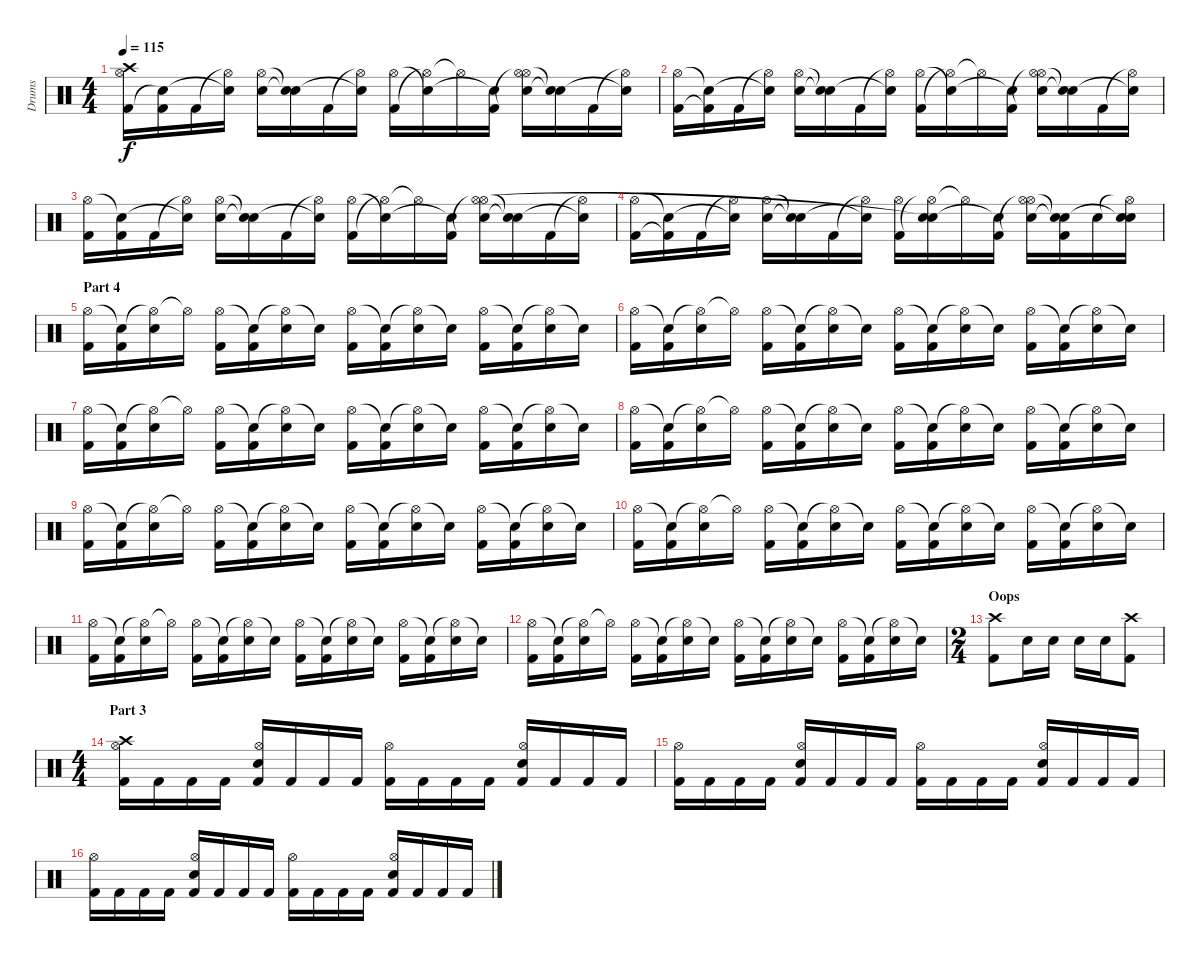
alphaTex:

\track ("Drums" "Drums") {instrument percussion}
\staff {score}
\articulation defaults
\ts (4 4)
\tempo 115
\clef neutral
\ks c
("Crash high (hit)" "Kick (hit) 2" "Hi-Hat (open)").16{dy f} ("Kick (hit) 2" "Snare (hit)"{t}).16 "Kick (hit) 2".16 ("Hi-Hat (open)"{t} "Snare (hit)"{t}).16 ("Electric Snare (hit)" "Hi-Hat (open)").16 ("Snare (hit)"{t} "Snare (hit)"{t}).16 "Kick (hit) 2".16 ("Hi-Hat (open)"{t} "Snare (hit)"{t}).16 ("Kick (hit) 2" "Hi-Hat (open)").16 ("Hi-Hat (open)"{t} "Snare (hit)"{t}).16 "Hi-Hat (open)"{t}.16 ("Kick (hit) 2" "Snare (hit)"{t}).16 ("Hi-Hat (open)"{t} "Electric Snare (hit)" "Hi-Hat (open)").16 ("Electric Snare (hit)"{t} "Snare (hit)"{t}).16 "Kick (hit) 2".16 ("Hi-Hat (open)"{t} "Snare (hit)"{t}).16 |
("Kick (hit) 2" "Hi-Hat (open)").16 ("Kick (hit) 2"{t} "Snare (hit)"{t}).16 "Kick (hit) 2".16 ("Hi-Hat (open)"{t} "Snare (hit)"{t}).16 ("Electric Snare (hit)" "Hi-Hat (open)").16 ("Snare (hit)"{t} "Snare (hit)"{t}).16 "Kick (hit) 2".16 ("Hi-Hat (open)"{t} "Snare (hit)"{t}).16 ("Kick (hit) 2" "Hi-Hat (open)").16 ("Hi-Hat (open)"{t} "Snare (hit)"{t}).16 "Hi-Hat (open)"{t}.16 ("Kick (hit) 2" "Snare (hit)"{t}).16 ("Hi-Hat (open)"{t} "Electric Snare (hit)" "Hi-Hat (open)").16 ("Electric Snare (hit)"{t} "Snare (hit)"{t}).16 "Kick (hit) 2".16 ("Hi-Hat (open)"{t} "Snare (hit)"{t}).16 |
("Kick (hit) 2" "Hi-Hat (open)").16 ("Kick (hit) 2" "Snare (hit)"{t}).16 "Kick (hit) 2".16 ("Hi-Hat (open)"{t} "Snare (hit)"{t}).16 ("Electric Snare (hit)" "Hi-Hat (open)").16 ("Snare (hit)"{t} "Snare (hit)"{t}).16 "Kick (hit) 2".16 ("Hi-Hat (open)"{t} "Snare (hit)"{t}).16 ("Kick (hit) 2" "Hi-Hat (open)").16 ("Hi-Hat (open)"{t} "Snare (hit)"{t}).16 "Hi-Hat (open)"{t}.16 ("Kick (hit) 2" "Snare (hit)"{t}).16 ("Hi-Hat (open)"{t} "Electric Snare (hit)" "Hi-Hat (open)").16 ("Electric Snare (hit)"{t} "Snare (hit)"{t}).16 "Kick (hit) 2".16 ("Hi-Hat (open)"{t} "Snare (hit)"{t}).16 |
("Kick (hit) 2" "Hi-Hat (open)").16 ("Kick (hit) 2"{t} "Snare (hit)"{t}).16 "Kick (hit) 2".16 ("Hi-Hat (open)"{t} "Snare (hit)"{t}).16 ("Electric Snare (hit)" "Hi-Hat (open)").16 ("Snare (hit)"{t} "Snare (hit)"{t}).16 "Kick (hit) 2".16 ("Hi-Hat (open)"{t} "Snare (hit)"{t}).16 ("Kick (hit) 2" "Hi-Hat (open)").16 ("Hi-Hat (open)"{t} "Electric Snare (hit)" "Snare (hit)"{t}).16 "Hi-Hat (open)"{t}.16 ("Kick (hit) 2" "Snare (hit)"{t}).16 ("Hi-Hat (open)"{t} "Electric Snare (hit)" "Hi-Hat (open)").16 ("Kick (hit) 2" "Electric Snare (hit)"{t} "Snare (hit)"{t}).16 "Electric Snare (hit)".16 ("Hi-Hat (open)"{t} "Electric Snare (hit)" "Snare (hit)"{t}).16 |
\section ("" "Part 4")
("Hi-Hat (open)" "Kick (hit) 2").16 ("Snare (hit)"{t} "Kick (hit) 2").16 ("Hi-Hat (open)"{t} "Electric Snare (hit)").16 "Hi-Hat (open)"{t}.16 ("Hi-Hat (open)" "Kick (hit) 2").16 ("Snare (hit)"{t} "Kick (hit) 2").16 ("Hi-Hat (open)"{t} "Electric Snare (hit)").16 "Snare (hit)"{t}.16 ("Hi-Hat (open)" "Kick (hit) 2").16 ("Snare (hit)"{t} "Kick (hit) 2").16 ("Hi-Hat (open)"{t} "Electric Snare (hit)").16 "Snare (hit)"{t}.16 ("Hi-Hat (open)" "Kick (hit) 2").16 ("Snare (hit)"{t} "Kick (hit) 2").16 ("Hi-Hat (open)"{t} "Electric Snare (hit)").16 "Snare (hit)"{t}.16 |
("Hi-Hat (open)" "Kick (hit) 2").16 ("Snare (hit)"{t} "Kick (hit) 2").16 ("Hi-Hat (open)"{t} "Electric Snare (hit)").16 "Hi-Hat (open)"{t}.16 ("Hi-Hat (open)" "Kick (hit) 2").16 ("Snare (hit)"{t} "Kick (hit) 2").16 ("Hi-Hat (open)"{t} "Electric Snare (hit)").16 "Snare (hit)"{t}.16 ("Hi-Hat (open)" "Kick (hit) 2").16 ("Snare (hit)"{t} "Kick (hit) 2").16 ("Hi-Hat (open)"{t} "Electric Snare (hit)").16 "Snare (hit)"{t}.16 ("Hi-Hat (open)" "Kick (hit) 2").16 ("Snare (hit)"{t} "Kick (hit) 2").16 ("Hi-Hat (open)"{t} "Electric Snare (hit)").16 "Snare (hit)"{t}.16 |
("Hi-Hat (open)" "Kick (hit) 2").16 ("Snare (hit)"{t} "Kick (hit) 2").16 ("Hi-Hat (open)"{t} "Electric Snare (hit)").16 "Hi-Hat (open)"{t}.16 ("Hi-Hat (open)" "Kick (hit) 2").16 ("Snare (hit)"{t} "Kick (hit) 2").16 ("Hi-Hat (open)"{t} "Electric Snare (hit)").16 "Snare (hit)"{t}.16 ("Hi-Hat (open)" "Kick (hit) 2").16 ("Snare (hit)"{t} "Kick (hit) 2").16 ("Hi-Hat (open)"{t} "Electric Snare (hit)").16 "Snare (hit)"{t}.16 ("Hi-Hat (open)" "Kick (hit) 2").16 ("Snare (hit)"{t} "Kick (hit) 2").16 ("Hi-Hat (open)"{t} "Electric Snare (hit)").16 "Snare (hit)"{t}.16 |
("Hi-Hat (open)" "Kick (hit) 2").16 ("Snare (hit)"{t} "Kick (hit) 2").16 ("Hi-Hat (open)"{t} "Electric Snare (hit)").16 "Hi-Hat (open)"{t}.16 ("Hi-Hat (open)" "Kick (hit) 2").16 ("Snare (hit)"{t} "Kick (hit) 2").16 ("Hi-Hat (open)"{t} "Electric Snare (hit)").16 "Snare (hit)"{t}.16 ("Hi-Hat (open)" "Kick (hit) 2").16 ("Snare (hit)"{t} "Kick (hit) 2").16 ("Hi-Hat (open)"{t} "Electric Snare (hit)").16 "Snare (hit)"{t}.16 ("Hi-Hat (open)" "Kick (hit) 2").16 ("Snare (hit)"{t} "Kick (hit) 2").16 ("Hi-Hat (open)"{t} "Electric Snare (hit)").16 "Snare (hit)"{t}.16 |
("Hi-Hat (open)" "Kick (hit) 2").16 ("Snare (hit)"{t} "Kick (hit) 2").16 ("Hi-Hat (open)"{t} "Electric Snare (hit)").16 "Hi-Hat (open)"{t}.16 ("Hi-Hat (open)" "Kick (hit) 2").16 ("Snare (hit)"{t} "Kick (hit) 2").16 ("Hi-Hat (open)"{t} "Electric Snare (hit)").16 "Snare (hit)"{t}.16 ("Hi-Hat (open)" "Kick (hit) 2").16 ("Snare (hit)"{t} "Kick (hit) 2").16 ("Hi-Hat (open)"{t} "Electric Snare (hit)").16 "Snare (hit)"{t}.16 ("Hi-Hat (open)" "Kick (hit) 2").16 ("Snare (hit)"{t} "Kick (hit) 2").16 ("Hi-Hat (open)"{t} "Electric Snare (hit)").16 "Snare (hit)"{t}.16 |
("Hi-Hat (open)" "Kick (hit) 2").16 ("Snare (hit)"{t} "Kick (hit) 2").16 ("Hi-Hat (open)"{t} "Electric Snare (hit)").16 "Hi-Hat (open)"{t}.16 ("Hi-Hat (open)" "Kick (hit) 2").16 ("Snare (hit)"{t} "Kick (hit) 2").16 ("Hi-Hat (open)"{t} "Electric Snare (hit)").16 "Snare (hit)"{t}.16 ("Hi-Hat (open)" "Kick (hit) 2").16 ("Snare (hit)"{t} "Kick (hit) 2").16 ("Hi-Hat (open)"{t} "Electric Snare (hit)").16 "Snare (hit)"{t}.16 ("Hi-Hat (open)" "Kick (hit) 2").16 ("Snare (hit)"{t} "Kick (hit) 2").16 ("Hi-Hat (open)"{t} "Electric Snare (hit)").16 "Snare (hit)"{t}.16 |
("Hi-Hat (open)" "Kick (hit) 2").16 ("Snare (hit)"{t} "Kick (hit) 2").16 ("Hi-Hat (open)"{t} "Electric Snare (hit)").16 "Hi-Hat (open)"{t}.16 ("Hi-Hat (open)" "Kick (hit) 2").16 ("Snare (hit)"{t} "Kick (hit) 2").16 ("Hi-Hat (open)"{t} "Electric Snare (hit)").16 "Snare (hit)"{t}.16 ("Hi-Hat (open)" "Kick (hit) 2").16 ("Snare (hit)"{t} "Kick (hit) 2").16 ("Hi-Hat (open)"{t} "Electric Snare (hit)").16 "Snare (hit)"{t}.16 ("Hi-Hat (open)" "Kick (hit) 2").16 ("Snare (hit)"{t} "Kick (hit) 2").16 ("Hi-Hat (open)"{t} "Electric Snare (hit)").16 "Snare (hit)"{t}.16 |
("Hi-Hat (open)" "Kick (hit) 2").16 ("Snare (hit)"{t} "Kick (hit) 2").16 ("Hi-Hat (open)"{t} "Electric Snare (hit)").16 "Hi-Hat (open)"{t}.16 ("Hi-Hat (open)" "Kick (hit) 2").16 ("Snare (hit)"{t} "Kick (hit) 2").16 ("Hi-Hat (open)"{t} "Electric Snare (hit)").16 "Snare (hit)"{t}.16 ("Hi-Hat (open)" "Kick (hit) 2").16 ("Snare (hit)"{t} "Kick (hit) 2").16 ("Hi-Hat (open)"{t} "Electric Snare (hit)").16 "Snare (hit)"{t}.16 ("Hi-Hat (open)" "Kick (hit) 2").16 ("Snare (hit)"{t} "Kick (hit) 2").16 ("Hi-Hat (open)"{t} "Electric Snare (hit)").16 "Snare (hit)"{t}.16 |
\ts (2 4)
\section ("" "Oops")
("Kick (hit) 2" "Crash high (hit)").8 "Electric Snare (hit)".16 "Electric Snare (hit)".16 "Electric Snare (hit)".16 "Electric Snare (hit)".16 ("Kick (hit) 2" "Crash high (hit)").8 |
\ts (4 4)
\section ("" "Part 3")
("Kick (hit) 2" "Crash high (hit)" "Hi-Hat (open)").16 "Kick (hit) 2".16 "Kick (hit) 2".16 "Kick (hit) 2".16 ("Kick (hit) 2" "Electric Snare (hit)" "Hi-Hat (open)").16 "Kick (hit) 2".16 "Kick (hit) 2".16 "Kick (hit) 2".16 ("Kick (hit) 2" "Hi-Hat (open)").16 "Kick (hit) 2".16 "Kick (hit) 2".16 "Kick (hit) 2".16 ("Kick (hit) 2" "Electric Snare (hit)" "Hi-Hat (open)").16 "Kick (hit) 2".16 "Kick (hit) 2".16 "Kick (hit) 2".16 |
("Kick (hit) 2" "Hi-Hat (open)").16 "Kick (hit) 2".16 "Kick (hit) 2".16 "Kick (hit) 2".16 ("Kick (hit) 2" "Electric Snare (hit)" "Hi-Hat (open)").16 "Kick (hit) 2".16 "Kick (hit) 2".16 "Kick (hit) 2".16 ("Kick (hit) 2" "Hi-Hat (open)").16 "Kick (hit) 2".16 "Kick (hit) 2".16 "Kick (hit) 2".16 ("Kick (hit) 2" "Electric Snare (hit)" "Hi-Hat (open)").16 "Kick (hit) 2".16 "Kick (hit) 2".16 "Kick (hit) 2".16 |
("Kick (hit) 2" "Hi-Hat (open)").16 "Kick (hit) 2".16 "Kick (hit) 2".16 "Kick (hit) 2".16 ("Kick (hit) 2" "Electric Snare (hit)" "Hi-Hat (open)").16 "Kick (hit) 2".16 "Kick (hit) 2".16 "Kick (hit) 2".16 ("Kick (hit) 2" "Hi-Hat (open)").16 "Kick (hit) 2".16 "Kick (hit) 2".16 "Kick (hit) 2".16 ("Kick (hit) 2" "Electric Snare (hit)" "Hi-Hat (open)").16 "Kick (hit) 2".16 "Kick (hit) 2".16 "Kick (hit) 2".16
